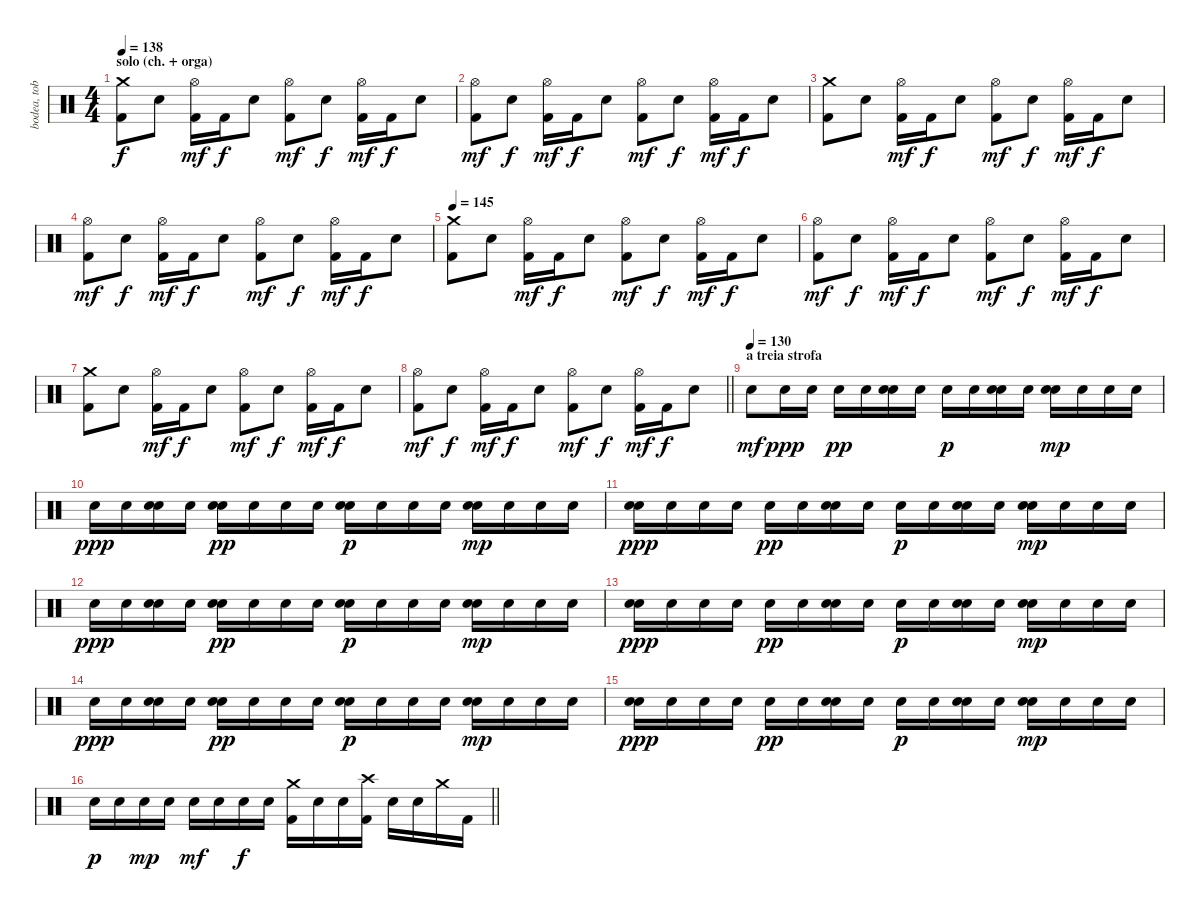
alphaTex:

\track ("bodea, tobe" "bodea, tob") {instrument percussion}
\staff {score}
\articulation defaults
\ts (4 4)
\section ("" "solo (ch. + orga)")
\tempo 138
\clef neutral
\ks c
("Crash medium (hit)" "Kick (hit) 2").8{dy f} "Electric Snare (hit)".8 ("Hi-Hat (open)" "Kick (hit) 2").16{dy mf} "Kick (hit) 2".16{dy f} "Electric Snare (hit)".8 ("Hi-Hat (open)" "Kick (hit) 2").8{dy mf} "Electric Snare (hit)".8{dy f} ("Hi-Hat (open)" "Kick (hit) 2").16{dy mf} "Kick (hit) 2".16{dy f} "Electric Snare (hit)".8 |
("Hi-Hat (open)" "Kick (hit) 2").8{dy mf} "Electric Snare (hit)".8{dy f} ("Hi-Hat (open)" "Kick (hit) 2").16{dy mf} "Kick (hit) 2".16{dy f} "Electric Snare (hit)".8 ("Hi-Hat (open)" "Kick (hit) 2").8{dy mf} "Electric Snare (hit)".8{dy f} ("Hi-Hat (open)" "Kick (hit) 2").16{dy mf} "Kick (hit) 2".16{dy f} "Electric Snare (hit)".8 |
("Crash medium (hit)" "Kick (hit) 2").8 "Electric Snare (hit)".8 ("Hi-Hat (open)" "Kick (hit) 2").16{dy mf} "Kick (hit) 2".16{dy f} "Electric Snare (hit)".8 ("Hi-Hat (open)" "Kick (hit) 2").8{dy mf} "Electric Snare (hit)".8{dy f} ("Hi-Hat (open)" "Kick (hit) 2").16{dy mf} "Kick (hit) 2".16{dy f} "Electric Snare (hit)".8 |
("Hi-Hat (open)" "Kick (hit) 2").8{dy mf} "Electric Snare (hit)".8{dy f} ("Hi-Hat (open)" "Kick (hit) 2").16{dy mf} "Kick (hit) 2".16{dy f} "Electric Snare (hit)".8 ("Hi-Hat (open)" "Kick (hit) 2").8{dy mf} "Electric Snare (hit)".8{dy f} ("Hi-Hat (open)" "Kick (hit) 2").16{dy mf} "Kick (hit) 2".16{dy f} "Electric Snare (hit)".8 |
\tempo 145
("Crash medium (hit)" "Kick (hit) 2").8 "Electric Snare (hit)".8 ("Hi-Hat (open)" "Kick (hit) 2").16{dy mf} "Kick (hit) 2".16{dy f} "Electric Snare (hit)".8 ("Hi-Hat (open)" "Kick (hit) 2").8{dy mf} "Electric Snare (hit)".8{dy f} ("Hi-Hat (open)" "Kick (hit) 2").16{dy mf} "Kick (hit) 2".16{dy f} "Electric Snare (hit)".8 |
("Hi-Hat (open)" "Kick (hit) 2").8{dy mf} "Electric Snare (hit)".8{dy f} ("Hi-Hat (open)" "Kick (hit) 2").16{dy mf} "Kick (hit) 2".16{dy f} "Electric Snare (hit)".8 ("Hi-Hat (open)" "Kick (hit) 2").8{dy mf} "Electric Snare (hit)".8{dy f} ("Hi-Hat (open)" "Kick (hit) 2").16{dy mf} "Kick (hit) 2".16{dy f} "Electric Snare (hit)".8 |
("Crash medium (hit)" "Kick (hit) 2").8 "Electric Snare (hit)".8 ("Hi-Hat (open)" "Kick (hit) 2").16{dy mf} "Kick (hit) 2".16{dy f} "Electric Snare (hit)".8 ("Hi-Hat (open)" "Kick (hit) 2").8{dy mf} "Electric Snare (hit)".8{dy f} ("Hi-Hat (open)" "Kick (hit) 2").16{dy mf} "Kick (hit) 2".16{dy f} "Electric Snare (hit)".8 |
\barLineRight lightlight
("Hi-Hat (open)" "Kick (hit) 2").8{dy mf} "Electric Snare (hit)".8{dy f} ("Hi-Hat (open)" "Kick (hit) 2").16{dy mf} "Kick (hit) 2".16{dy f} "Electric Snare (hit)".8 ("Hi-Hat (open)" "Kick (hit) 2").8{dy mf} "Electric Snare (hit)".8{dy f} ("Hi-Hat (open)" "Kick (hit) 2").16{dy mf} "Kick (hit) 2".16{dy f} "Electric Snare (hit)".8 |
\section ("" "a treia strofa")
\tempo (130)
"Electric Snare (hit)".8{dy mf} "Electric Snare (hit)".16{dy ppp} "Electric Snare (hit)".16 "Electric Snare (hit)".16{dy pp} "Electric Snare (hit)".16 ("Electric Snare (hit)" "Electric Snare (hit)").16 "Electric Snare (hit)".16 "Electric Snare (hit)".16{dy p} "Electric Snare (hit)".16 ("Electric Snare (hit)" "Electric Snare (hit)").16 "Electric Snare (hit)".16 ("Electric Snare (hit)" "Electric Snare (hit)").16{dy mp} "Electric Snare (hit)".16 "Electric Snare (hit)".16 "Electric Snare (hit)".16 |
"Electric Snare (hit)".16{dy ppp} "Electric Snare (hit)".16 ("Electric Snare (hit)" "Electric Snare (hit)").16 "Electric Snare (hit)".16 ("Electric Snare (hit)" "Electric Snare (hit)").16{dy pp} "Electric Snare (hit)".16 "Electric Snare (hit)".16 "Electric Snare (hit)".16 ("Electric Snare (hit)" "Electric Snare (hit)").16{dy p} "Electric Snare (hit)".16 "Electric Snare (hit)".16 "Snare (hit)".16 ("Electric Snare (hit)" "Electric Snare (hit)").16{dy mp} "Electric Snare (hit)".16 "Electric Snare (hit)".16 "Electric Snare (hit)".16 |
("Electric Snare (hit)" "Electric Snare (hit)").16{dy ppp} "Electric Snare (hit)".16 "Electric Snare (hit)".16 "Electric Snare (hit)".16 "Electric Snare (hit)".16{dy pp} "Electric Snare (hit)".16 ("Electric Snare (hit)" "Electric Snare (hit)").16 "Electric Snare (hit)".16 "Electric Snare (hit)".16{dy p} "Electric Snare (hit)".16 ("Electric Snare (hit)" "Electric Snare (hit)").16 "Electric Snare (hit)".16 ("Electric Snare (hit)" "Electric Snare (hit)").16{dy mp} "Electric Snare (hit)".16 "Electric Snare (hit)".16 "Electric Snare (hit)".16 |
"Electric Snare (hit)".16{dy ppp} "Electric Snare (hit)".16 ("Electric Snare (hit)" "Electric Snare (hit)").16 "Electric Snare (hit)".16 ("Electric Snare (hit)" "Electric Snare (hit)").16{dy pp} "Electric Snare (hit)".16 "Electric Snare (hit)".16 "Electric Snare (hit)".16 ("Electric Snare (hit)" "Electric Snare (hit)").16{dy p} "Electric Snare (hit)".16 "Electric Snare (hit)".16 "Snare (hit)".16 ("Electric Snare (hit)" "Electric Snare (hit)").16{dy mp} "Electric Snare (hit)".16 "Electric Snare (hit)".16 "Electric Snare (hit)".16 |
("Electric Snare (hit)" "Electric Snare (hit)").16{dy ppp} "Electric Snare (hit)".16 "Electric Snare (hit)".16 "Electric Snare (hit)".16 "Electric Snare (hit)".16{dy pp} "Electric Snare (hit)".16 ("Electric Snare (hit)" "Electric Snare (hit)").16 "Electric Snare (hit)".16 "Electric Snare (hit)".16{dy p} "Electric Snare (hit)".16 ("Electric Snare (hit)" "Electric Snare (hit)").16 "Electric Snare (hit)".16 ("Electric Snare (hit)" "Electric Snare (hit)").16{dy mp} "Electric Snare (hit)".16 "Electric Snare (hit)".16 "Electric Snare (hit)".16 |
"Electric Snare (hit)".16{dy ppp} "Electric Snare (hit)".16 ("Electric Snare (hit)" "Electric Snare (hit)").16 "Electric Snare (hit)".16 ("Electric Snare (hit)" "Electric Snare (hit)").16{dy pp} "Electric Snare (hit)".16 "Electric Snare (hit)".16 "Electric Snare (hit)".16 ("Electric Snare (hit)" "Electric Snare (hit)").16{dy p} "Electric Snare (hit)".16 "Electric Snare (hit)".16 "Snare (hit)".16 ("Electric Snare (hit)" "Electric Snare (hit)").16{dy mp} "Electric Snare (hit)".16 "Electric Snare (hit)".16 "Electric Snare (hit)".16 |
("Electric Snare (hit)" "Electric Snare (hit)").16{dy ppp} "Electric Snare (hit)".16 "Electric Snare (hit)".16 "Electric Snare (hit)".16 "Electric Snare (hit)".16{dy pp} "Electric Snare (hit)".16 ("Electric Snare (hit)" "Electric Snare (hit)").16 "Electric Snare (hit)".16 "Electric Snare (hit)".16{dy p} "Electric Snare (hit)".16 ("Electric Snare (hit)" "Electric Snare (hit)").16 "Electric Snare (hit)".16 ("Electric Snare (hit)" "Electric Snare (hit)").16{dy mp} "Electric Snare (hit)".16 "Electric Snare (hit)".16 "Electric Snare (hit)".16 |
\barLineRight lightlight "Electric Snare (hit)".16{dy p} "Electric Snare (hit)".16 "Electric Snare (hit)".16{dy mp} "Electric Snare (hit)".16 "Electric Snare (hit)".16{dy mf} "Electric Snare (hit)".16 "Electric Snare (hit)".16{dy f} "Electric Snare (hit)".16
("Crash medium (hit)" "Kick (hit) 2").16 "Electric Snare (hit)".16 "Electric Snare (hit)".16 ("Crash high (hit)" "Kick (hit) 2").16 "Electric Snare (hit)".16 "Electric Snare (hit)".16 "Crash medium (hit)".16 "Kick (hit) 2".16
